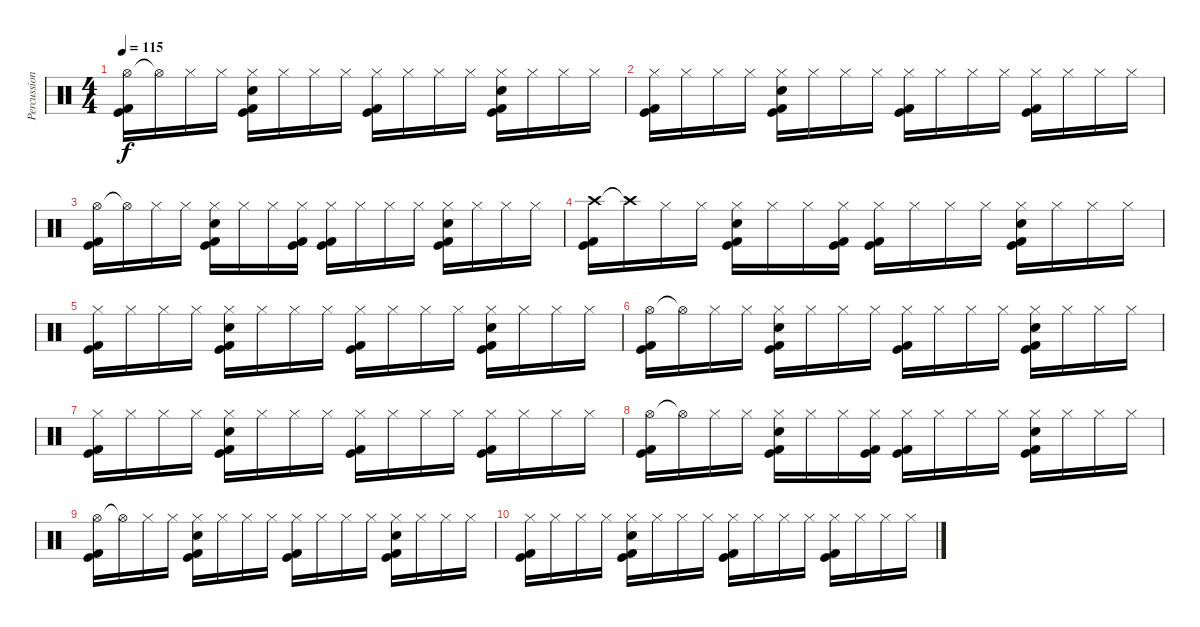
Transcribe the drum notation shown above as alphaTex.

\track ("Percussions" "Percussion") {instrument percussion}
\staff {score}
\articulation defaults
\ts (4 4)
\tempo 115
\clef neutral
\ks c
("Hi-Hat (open)" "Kick (hit) 2" "Kick (hit)").16{dy f} "Hi-Hat (open)"{t}.16 "Hi-Hat (closed)".16 "Hi-Hat (closed)".16 ("Hi-Hat (closed)" "Kick (hit) 2" "Snare (hit) 2" "Kick (hit)").16 "Hi-Hat (closed)".16 "Hi-Hat (closed)".16 "Hi-Hat (closed)".16 ("Hi-Hat (closed)" "Kick (hit) 2" "Kick (hit)").16 "Hi-Hat (closed)".16 "Hi-Hat (closed)".16 "Hi-Hat (closed)".16 ("Hi-Hat (closed)" "Kick (hit) 2" "Snare (hit) 2" "Kick (hit)").16 "Hi-Hat (closed)".16 "Hi-Hat (closed)".16 "Hi-Hat (closed)".16 |
("Hi-Hat (closed)" "Kick (hit) 2" "Kick (hit)").16 "Hi-Hat (closed)".16 "Hi-Hat (closed)".16 "Hi-Hat (closed)".16 ("Hi-Hat (closed)" "Kick (hit) 2" "Snare (hit) 2" "Kick (hit)").16 "Hi-Hat (closed)".16 "Hi-Hat (closed)".16 "Hi-Hat (closed)".16 ("Hi-Hat (closed)" "Kick (hit) 2" "Kick (hit)").16 "Hi-Hat (closed)".16 "Hi-Hat (closed)".16 "Hi-Hat (closed)".16 ("Hi-Hat (closed)" "Kick (hit) 2" "Kick (hit)").16 "Hi-Hat (closed)".16 "Hi-Hat (closed)".16 "Hi-Hat (closed)".16 |
("Hi-Hat (open)" "Kick (hit) 2" "Kick (hit)").16 "Hi-Hat (open)"{t}.16 "Hi-Hat (closed)".16 "Hi-Hat (closed)".16 ("Hi-Hat (closed)" "Kick (hit) 2" "Snare (hit) 2" "Kick (hit)").16 "Hi-Hat (closed)".16 "Hi-Hat (closed)".16 ("Hi-Hat (closed)" "Kick (hit) 2" "Kick (hit)").16 ("Hi-Hat (closed)" "Kick (hit) 2" "Kick (hit)").16 "Hi-Hat (closed)".16 "Hi-Hat (closed)".16 "Hi-Hat (closed)".16 ("Hi-Hat (closed)" "Kick (hit) 2" "Snare (hit) 2" "Kick (hit)").16 "Hi-Hat (closed)".16 "Hi-Hat (closed)".16 "Hi-Hat (closed)".16 |
("Crash high (hit)" "Kick (hit) 2" "Kick (hit)").16 "Crash high (hit)"{t}.16 "Hi-Hat (closed)".16 "Hi-Hat (closed)".16 ("Hi-Hat (closed)" "Kick (hit) 2" "Snare (hit) 2" "Kick (hit)").16 "Hi-Hat (closed)".16 "Hi-Hat (closed)".16 ("Hi-Hat (closed)" "Kick (hit) 2" "Kick (hit)").16 ("Hi-Hat (closed)" "Kick (hit) 2" "Kick (hit)").16 "Hi-Hat (closed)".16 "Hi-Hat (closed)".16 "Hi-Hat (closed)".16 ("Hi-Hat (closed)" "Kick (hit) 2" "Snare (hit) 2" "Kick (hit)").16 "Hi-Hat (closed)".16 "Hi-Hat (closed)".16 "Hi-Hat (closed)".16 |
("Hi-Hat (closed)" "Kick (hit) 2" "Kick (hit)").16 "Hi-Hat (closed)".16 "Hi-Hat (closed)".16 "Hi-Hat (closed)".16 ("Hi-Hat (closed)" "Kick (hit) 2" "Snare (hit) 2" "Kick (hit)").16 "Hi-Hat (closed)".16 "Hi-Hat (closed)".16 "Hi-Hat (closed)".16 ("Hi-Hat (closed)" "Kick (hit) 2" "Kick (hit)").16 "Hi-Hat (closed)".16 "Hi-Hat (closed)".16 "Hi-Hat (closed)".16 ("Hi-Hat (closed)" "Kick (hit) 2" "Snare (hit) 2" "Kick (hit)").16 "Hi-Hat (closed)".16 "Hi-Hat (closed)".16 "Hi-Hat (closed)".16 |
("Hi-Hat (open)" "Kick (hit) 2" "Kick (hit)").16 "Hi-Hat (open)"{t}.16 "Hi-Hat (closed)".16 "Hi-Hat (closed)".16 ("Hi-Hat (closed)" "Kick (hit) 2" "Snare (hit) 2" "Kick (hit)").16 "Hi-Hat (closed)".16 "Hi-Hat (closed)".16 "Hi-Hat (closed)".16 ("Hi-Hat (closed)" "Kick (hit) 2" "Kick (hit)").16 "Hi-Hat (closed)".16 "Hi-Hat (closed)".16 "Hi-Hat (closed)".16 ("Hi-Hat (closed)" "Kick (hit) 2" "Snare (hit) 2" "Kick (hit)").16 "Hi-Hat (closed)".16 "Hi-Hat (closed)".16 "Hi-Hat (closed)".16 |
("Hi-Hat (closed)" "Kick (hit) 2" "Kick (hit)").16 "Hi-Hat (closed)".16 "Hi-Hat (closed)".16 "Hi-Hat (closed)".16 ("Hi-Hat (closed)" "Kick (hit) 2" "Snare (hit) 2" "Kick (hit)").16 "Hi-Hat (closed)".16 "Hi-Hat (closed)".16 "Hi-Hat (closed)".16 ("Hi-Hat (closed)" "Kick (hit) 2" "Kick (hit)").16 "Hi-Hat (closed)".16 "Hi-Hat (closed)".16 "Hi-Hat (closed)".16 ("Hi-Hat (closed)" "Kick (hit) 2" "Kick (hit)").16 "Hi-Hat (closed)".16 "Hi-Hat (closed)".16 "Hi-Hat (closed)".16 |
("Hi-Hat (open)" "Kick (hit) 2" "Kick (hit)").16 "Hi-Hat (open)"{t}.16 "Hi-Hat (closed)".16 "Hi-Hat (closed)".16 ("Hi-Hat (closed)" "Kick (hit) 2" "Snare (hit) 2" "Kick (hit)").16 "Hi-Hat (closed)".16 "Hi-Hat (closed)".16 ("Hi-Hat (closed)" "Kick (hit) 2" "Kick (hit)").16 ("Hi-Hat (closed)" "Kick (hit) 2" "Kick (hit)").16 "Hi-Hat (closed)".16 "Hi-Hat (closed)".16 "Hi-Hat (closed)".16 ("Hi-Hat (closed)" "Kick (hit) 2" "Snare (hit) 2" "Kick (hit)").16 "Hi-Hat (closed)".16 "Hi-Hat (closed)".16 "Hi-Hat (closed)".16 |
("Hi-Hat (open)" "Kick (hit) 2" "Kick (hit)").16 "Hi-Hat (open)"{t}.16 "Hi-Hat (closed)".16 "Hi-Hat (closed)".16 ("Hi-Hat (closed)" "Kick (hit) 2" "Snare (hit) 2" "Kick (hit)").16 "Hi-Hat (closed)".16 "Hi-Hat (closed)".16 "Hi-Hat (closed)".16 ("Hi-Hat (closed)" "Kick (hit) 2" "Kick (hit)").16 "Hi-Hat (closed)".16 "Hi-Hat (closed)".16 "Hi-Hat (closed)".16 ("Hi-Hat (closed)" "Kick (hit) 2" "Snare (hit) 2" "Kick (hit)").16 "Hi-Hat (closed)".16 "Hi-Hat (closed)".16 "Hi-Hat (closed)".16 |
("Hi-Hat (closed)" "Kick (hit) 2" "Kick (hit)").16 "Hi-Hat (closed)".16 "Hi-Hat (closed)".16 "Hi-Hat (closed)".16 ("Hi-Hat (closed)" "Kick (hit) 2" "Snare (hit) 2" "Kick (hit)").16 "Hi-Hat (closed)".16 "Hi-Hat (closed)".16 "Hi-Hat (closed)".16 ("Hi-Hat (closed)" "Kick (hit) 2" "Kick (hit)").16 "Hi-Hat (closed)".16 "Hi-Hat (closed)".16 "Hi-Hat (closed)".16 ("Hi-Hat (closed)" "Kick (hit) 2" "Kick (hit)").16 "Hi-Hat (closed)".16 "Hi-Hat (closed)".16 "Hi-Hat (closed)".16
